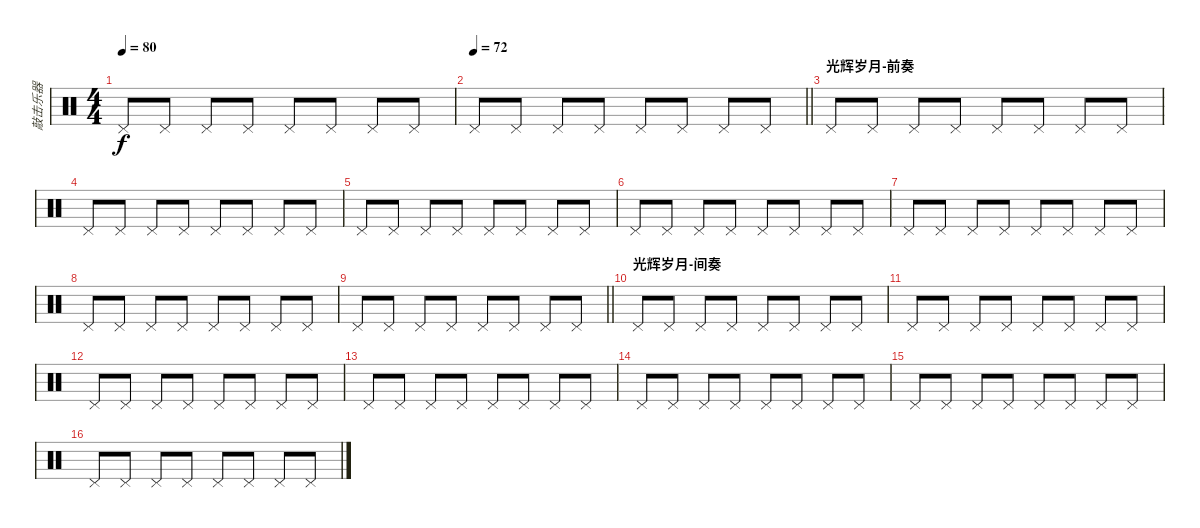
\track ("敲击乐器" "敲击乐器") {instrument percussion}
\staff {score}
\articulation defaults
\ts (4 4)
\tempo 80
\clef neutral
\ks c "Pedal Hi-Hat (hit)".8{dy f} "Pedal Hi-Hat (hit)".8 "Pedal Hi-Hat (hit)".8 "Pedal Hi-Hat (hit)".8 "Pedal Hi-Hat (hit)".8 "Pedal Hi-Hat (hit)".8 "Pedal Hi-Hat (hit)".8 "Pedal Hi-Hat (hit)".8
|
\tempo 72
\barLineRight lightlight "Pedal Hi-Hat (hit)".8 "Pedal Hi-Hat (hit)".8 "Pedal Hi-Hat (hit)".8 "Pedal Hi-Hat (hit)".8 "Pedal Hi-Hat (hit)".8 "Pedal Hi-Hat (hit)".8 "Pedal Hi-Hat (hit)".8 "Pedal Hi-Hat (hit)".8
|
\section ("" "光辉岁月-前奏")
"Pedal Hi-Hat (hit)".8 "Pedal Hi-Hat (hit)".8 "Pedal Hi-Hat (hit)".8 "Pedal Hi-Hat (hit)".8 "Pedal Hi-Hat (hit)".8 "Pedal Hi-Hat (hit)".8 "Pedal Hi-Hat (hit)".8 "Pedal Hi-Hat (hit)".8 |
"Pedal Hi-Hat (hit)".8 "Pedal Hi-Hat (hit)".8 "Pedal Hi-Hat (hit)".8 "Pedal Hi-Hat (hit)".8 "Pedal Hi-Hat (hit)".8 "Pedal Hi-Hat (hit)".8 "Pedal Hi-Hat (hit)".8 "Pedal Hi-Hat (hit)".8 |
"Pedal Hi-Hat (hit)".8 "Pedal Hi-Hat (hit)".8 "Pedal Hi-Hat (hit)".8 "Pedal Hi-Hat (hit)".8 "Pedal Hi-Hat (hit)".8 "Pedal Hi-Hat (hit)".8 "Pedal Hi-Hat (hit)".8 "Pedal Hi-Hat (hit)".8 |
"Pedal Hi-Hat (hit)".8 "Pedal Hi-Hat (hit)".8 "Pedal Hi-Hat (hit)".8 "Pedal Hi-Hat (hit)".8 "Pedal Hi-Hat (hit)".8 "Pedal Hi-Hat (hit)".8 "Pedal Hi-Hat (hit)".8 "Pedal Hi-Hat (hit)".8 |
"Pedal Hi-Hat (hit)".8 "Pedal Hi-Hat (hit)".8 "Pedal Hi-Hat (hit)".8 "Pedal Hi-Hat (hit)".8 "Pedal Hi-Hat (hit)".8 "Pedal Hi-Hat (hit)".8 "Pedal Hi-Hat (hit)".8 "Pedal Hi-Hat (hit)".8 |
"Pedal Hi-Hat (hit)".8 "Pedal Hi-Hat (hit)".8 "Pedal Hi-Hat (hit)".8 "Pedal Hi-Hat (hit)".8 "Pedal Hi-Hat (hit)".8 "Pedal Hi-Hat (hit)".8 "Pedal Hi-Hat (hit)".8 "Pedal Hi-Hat (hit)".8 |
\barLineRight lightlight "Pedal Hi-Hat (hit)".8 "Pedal Hi-Hat (hit)".8 "Pedal Hi-Hat (hit)".8 "Pedal Hi-Hat (hit)".8 "Pedal Hi-Hat (hit)".8 "Pedal Hi-Hat (hit)".8 "Pedal Hi-Hat (hit)".8 "Pedal Hi-Hat (hit)".8
|
\section ("" "光辉岁月-间奏")
"Pedal Hi-Hat (hit)".8 "Pedal Hi-Hat (hit)".8 "Pedal Hi-Hat (hit)".8 "Pedal Hi-Hat (hit)".8 "Pedal Hi-Hat (hit)".8 "Pedal Hi-Hat (hit)".8 "Pedal Hi-Hat (hit)".8 "Pedal Hi-Hat (hit)".8 |
"Pedal Hi-Hat (hit)".8 "Pedal Hi-Hat (hit)".8 "Pedal Hi-Hat (hit)".8 "Pedal Hi-Hat (hit)".8 "Pedal Hi-Hat (hit)".8 "Pedal Hi-Hat (hit)".8 "Pedal Hi-Hat (hit)".8 "Pedal Hi-Hat (hit)".8 |
"Pedal Hi-Hat (hit)".8 "Pedal Hi-Hat (hit)".8 "Pedal Hi-Hat (hit)".8 "Pedal Hi-Hat (hit)".8 "Pedal Hi-Hat (hit)".8 "Pedal Hi-Hat (hit)".8 "Pedal Hi-Hat (hit)".8 "Pedal Hi-Hat (hit)".8 |
"Pedal Hi-Hat (hit)".8 "Pedal Hi-Hat (hit)".8 "Pedal Hi-Hat (hit)".8 "Pedal Hi-Hat (hit)".8 "Pedal Hi-Hat (hit)".8 "Pedal Hi-Hat (hit)".8 "Pedal Hi-Hat (hit)".8 "Pedal Hi-Hat (hit)".8 |
"Pedal Hi-Hat (hit)".8 "Pedal Hi-Hat (hit)".8 "Pedal Hi-Hat (hit)".8 "Pedal Hi-Hat (hit)".8 "Pedal Hi-Hat (hit)".8 "Pedal Hi-Hat (hit)".8 "Pedal Hi-Hat (hit)".8 "Pedal Hi-Hat (hit)".8 |
"Pedal Hi-Hat (hit)".8 "Pedal Hi-Hat (hit)".8 "Pedal Hi-Hat (hit)".8 "Pedal Hi-Hat (hit)".8 "Pedal Hi-Hat (hit)".8 "Pedal Hi-Hat (hit)".8 "Pedal Hi-Hat (hit)".8 "Pedal Hi-Hat (hit)".8 |
"Pedal Hi-Hat (hit)".8 "Pedal Hi-Hat (hit)".8 "Pedal Hi-Hat (hit)".8 "Pedal Hi-Hat (hit)".8 "Pedal Hi-Hat (hit)".8 "Pedal Hi-Hat (hit)".8 "Pedal Hi-Hat (hit)".8 "Pedal Hi-Hat (hit)".8
